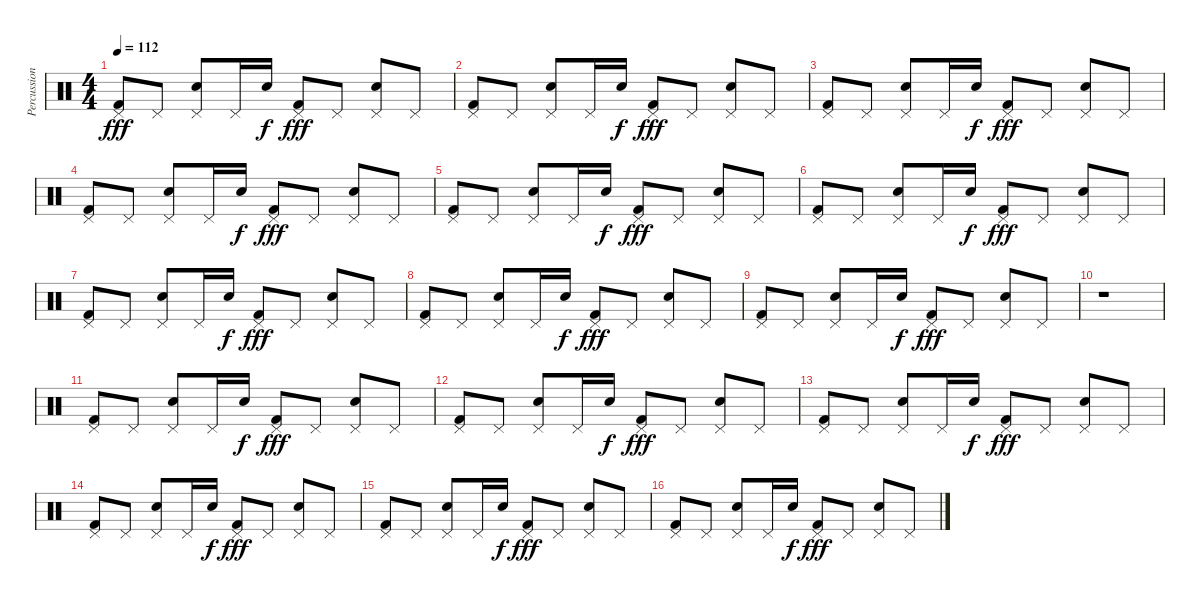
\track ("Percussions" "Percussion") {instrument percussion}
\staff {score}
\articulation defaults
\ts (4 4)
\tempo 112
\clef neutral
\ks c
("Pedal Hi-Hat (hit)" "Kick (hit) 2").8{dy fff} "Pedal Hi-Hat (hit)".8 ("Pedal Hi-Hat (hit)" "Electric Snare (hit)").8 "Pedal Hi-Hat (hit)".16 "Electric Snare (hit)".16{dy f} ("Pedal Hi-Hat (hit)" "Kick (hit) 2").8{dy fff} "Pedal Hi-Hat (hit)".8 ("Pedal Hi-Hat (hit)" "Electric Snare (hit)").8 "Pedal Hi-Hat (hit)".8 |
("Pedal Hi-Hat (hit)" "Kick (hit) 2").8 "Pedal Hi-Hat (hit)".8 ("Pedal Hi-Hat (hit)" "Electric Snare (hit)").8 "Pedal Hi-Hat (hit)".16 "Electric Snare (hit)".16{dy f} ("Pedal Hi-Hat (hit)" "Kick (hit) 2").8{dy fff} "Pedal Hi-Hat (hit)".8 ("Pedal Hi-Hat (hit)" "Electric Snare (hit)").8 "Pedal Hi-Hat (hit)".8 |
("Pedal Hi-Hat (hit)" "Kick (hit) 2").8 "Pedal Hi-Hat (hit)".8 ("Pedal Hi-Hat (hit)" "Electric Snare (hit)").8 "Pedal Hi-Hat (hit)".16 "Electric Snare (hit)".16{dy f} ("Pedal Hi-Hat (hit)" "Kick (hit) 2").8{dy fff} "Pedal Hi-Hat (hit)".8 ("Pedal Hi-Hat (hit)" "Electric Snare (hit)").8 "Pedal Hi-Hat (hit)".8 |
("Pedal Hi-Hat (hit)" "Kick (hit) 2").8 "Pedal Hi-Hat (hit)".8 ("Pedal Hi-Hat (hit)" "Electric Snare (hit)").8 "Pedal Hi-Hat (hit)".16 "Electric Snare (hit)".16{dy f} ("Pedal Hi-Hat (hit)" "Kick (hit) 2").8{dy fff} "Pedal Hi-Hat (hit)".8 ("Pedal Hi-Hat (hit)" "Electric Snare (hit)").8 "Pedal Hi-Hat (hit)".8 |
("Pedal Hi-Hat (hit)" "Kick (hit) 2").8 "Pedal Hi-Hat (hit)".8 ("Pedal Hi-Hat (hit)" "Electric Snare (hit)").8 "Pedal Hi-Hat (hit)".16 "Electric Snare (hit)".16{dy f} ("Pedal Hi-Hat (hit)" "Kick (hit) 2").8{dy fff} "Pedal Hi-Hat (hit)".8 ("Pedal Hi-Hat (hit)" "Electric Snare (hit)").8 "Pedal Hi-Hat (hit)".8 |
("Pedal Hi-Hat (hit)" "Kick (hit) 2").8 "Pedal Hi-Hat (hit)".8 ("Pedal Hi-Hat (hit)" "Electric Snare (hit)").8 "Pedal Hi-Hat (hit)".16 "Electric Snare (hit)".16{dy f} ("Pedal Hi-Hat (hit)" "Kick (hit) 2").8{dy fff} "Pedal Hi-Hat (hit)".8 ("Pedal Hi-Hat (hit)" "Electric Snare (hit)").8 "Pedal Hi-Hat (hit)".8 |
("Pedal Hi-Hat (hit)" "Kick (hit) 2").8 "Pedal Hi-Hat (hit)".8 ("Pedal Hi-Hat (hit)" "Electric Snare (hit)").8 "Pedal Hi-Hat (hit)".16 "Electric Snare (hit)".16{dy f} ("Pedal Hi-Hat (hit)" "Kick (hit) 2").8{dy fff} "Pedal Hi-Hat (hit)".8 ("Pedal Hi-Hat (hit)" "Electric Snare (hit)").8 "Pedal Hi-Hat (hit)".8 |
("Pedal Hi-Hat (hit)" "Kick (hit) 2").8 "Pedal Hi-Hat (hit)".8 ("Pedal Hi-Hat (hit)" "Electric Snare (hit)").8 "Pedal Hi-Hat (hit)".16 "Electric Snare (hit)".16{dy f} ("Pedal Hi-Hat (hit)" "Kick (hit) 2").8{dy fff} "Pedal Hi-Hat (hit)".8 ("Pedal Hi-Hat (hit)" "Electric Snare (hit)").8 "Pedal Hi-Hat (hit)".8 |
("Pedal Hi-Hat (hit)" "Kick (hit) 2").8 "Pedal Hi-Hat (hit)".8 ("Pedal Hi-Hat (hit)" "Electric Snare (hit)").8 "Pedal Hi-Hat (hit)".16 "Electric Snare (hit)".16{dy f} ("Pedal Hi-Hat (hit)" "Kick (hit) 2").8{dy fff} "Pedal Hi-Hat (hit)".8 ("Pedal Hi-Hat (hit)" "Electric Snare (hit)").8 "Pedal Hi-Hat (hit)".8 |
r.1 |
("Pedal Hi-Hat (hit)" "Kick (hit) 2").8 "Pedal Hi-Hat (hit)".8 ("Pedal Hi-Hat (hit)" "Electric Snare (hit)").8 "Pedal Hi-Hat (hit)".16 "Electric Snare (hit)".16{dy f} ("Pedal Hi-Hat (hit)" "Kick (hit) 2").8{dy fff} "Pedal Hi-Hat (hit)".8 ("Pedal Hi-Hat (hit)" "Electric Snare (hit)").8 "Pedal Hi-Hat (hit)".8 |
("Pedal Hi-Hat (hit)" "Kick (hit) 2").8 "Pedal Hi-Hat (hit)".8 ("Pedal Hi-Hat (hit)" "Electric Snare (hit)").8 "Pedal Hi-Hat (hit)".16 "Electric Snare (hit)".16{dy f} ("Pedal Hi-Hat (hit)" "Kick (hit) 2").8{dy fff} "Pedal Hi-Hat (hit)".8 ("Pedal Hi-Hat (hit)" "Electric Snare (hit)").8 "Pedal Hi-Hat (hit)".8 |
("Pedal Hi-Hat (hit)" "Kick (hit) 2").8 "Pedal Hi-Hat (hit)".8 ("Pedal Hi-Hat (hit)" "Electric Snare (hit)").8 "Pedal Hi-Hat (hit)".16 "Electric Snare (hit)".16{dy f} ("Pedal Hi-Hat (hit)" "Kick (hit) 2").8{dy fff} "Pedal Hi-Hat (hit)".8 ("Pedal Hi-Hat (hit)" "Electric Snare (hit)").8 "Pedal Hi-Hat (hit)".8 |
("Pedal Hi-Hat (hit)" "Kick (hit) 2").8 "Pedal Hi-Hat (hit)".8 ("Pedal Hi-Hat (hit)" "Electric Snare (hit)").8 "Pedal Hi-Hat (hit)".16 "Electric Snare (hit)".16{dy f} ("Pedal Hi-Hat (hit)" "Kick (hit) 2").8{dy fff} "Pedal Hi-Hat (hit)".8 ("Pedal Hi-Hat (hit)" "Electric Snare (hit)").8 "Pedal Hi-Hat (hit)".8 |
("Pedal Hi-Hat (hit)" "Kick (hit) 2").8 "Pedal Hi-Hat (hit)".8 ("Pedal Hi-Hat (hit)" "Electric Snare (hit)").8 "Pedal Hi-Hat (hit)".16 "Electric Snare (hit)".16{dy f} ("Pedal Hi-Hat (hit)" "Kick (hit) 2").8{dy fff} "Pedal Hi-Hat (hit)".8 ("Pedal Hi-Hat (hit)" "Electric Snare (hit)").8 "Pedal Hi-Hat (hit)".8 |
("Pedal Hi-Hat (hit)" "Kick (hit) 2").8 "Pedal Hi-Hat (hit)".8 ("Pedal Hi-Hat (hit)" "Electric Snare (hit)").8 "Pedal Hi-Hat (hit)".16 "Electric Snare (hit)".16{dy f} ("Pedal Hi-Hat (hit)" "Kick (hit) 2").8{dy fff} "Pedal Hi-Hat (hit)".8 ("Pedal Hi-Hat (hit)" "Electric Snare (hit)").8 "Pedal Hi-Hat (hit)".8
